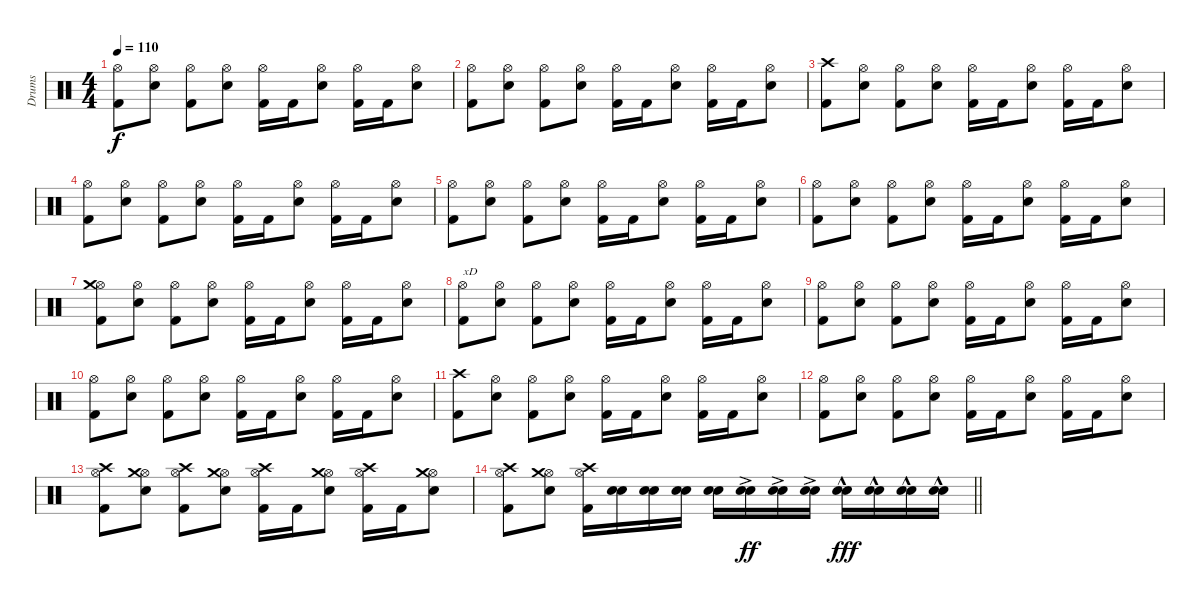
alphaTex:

\track ("Drums" "Drums") {instrument percussion}
\staff {score}
\articulation defaults
\ts (4 4)
\tempo 110
\clef neutral
\ks c
("Hi-Hat (open)" "Kick (hit) 2").8{dy f} ("Hi-Hat (open)" "Electric Snare (hit)").8 ("Hi-Hat (open)" "Kick (hit) 2").8 ("Hi-Hat (open)" "Electric Snare (hit)").8 ("Hi-Hat (open)" "Kick (hit) 2").16 "Kick (hit) 2".16 ("Hi-Hat (open)" "Electric Snare (hit)").8 ("Hi-Hat (open)" "Kick (hit) 2").16 "Kick (hit) 2".16 ("Hi-Hat (open)" "Electric Snare (hit)").8 |
("Hi-Hat (open)" "Kick (hit) 2").8 ("Hi-Hat (open)" "Electric Snare (hit)").8 ("Hi-Hat (open)" "Kick (hit) 2").8 ("Hi-Hat (open)" "Electric Snare (hit)").8 ("Hi-Hat (open)" "Kick (hit) 2").16 "Kick (hit) 2".16 ("Hi-Hat (open)" "Electric Snare (hit)").8 ("Hi-Hat (open)" "Kick (hit) 2").16 "Kick (hit) 2".16 ("Hi-Hat (open)" "Electric Snare (hit)").8 |
("Crash high (hit)" "Kick (hit) 2").8 ("Hi-Hat (open)" "Electric Snare (hit)").8 ("Hi-Hat (open)" "Kick (hit) 2").8 ("Hi-Hat (open)" "Electric Snare (hit)").8 ("Hi-Hat (open)" "Kick (hit) 2").16 "Kick (hit) 2".16 ("Hi-Hat (open)" "Electric Snare (hit)").8 ("Hi-Hat (open)" "Kick (hit) 2").16 "Kick (hit) 2".16 ("Hi-Hat (open)" "Electric Snare (hit)").8 |
("Hi-Hat (open)" "Kick (hit) 2").8 ("Hi-Hat (open)" "Electric Snare (hit)").8 ("Hi-Hat (open)" "Kick (hit) 2").8 ("Hi-Hat (open)" "Electric Snare (hit)").8 ("Hi-Hat (open)" "Kick (hit) 2").16 "Kick (hit) 2".16 ("Hi-Hat (open)" "Electric Snare (hit)").8 ("Hi-Hat (open)" "Kick (hit) 2").16 "Kick (hit) 2".16 ("Hi-Hat (open)" "Electric Snare (hit)").8 |
("Hi-Hat (open)" "Kick (hit) 2").8 ("Hi-Hat (open)" "Electric Snare (hit)").8 ("Hi-Hat (open)" "Kick (hit) 2").8 ("Hi-Hat (open)" "Electric Snare (hit)").8 ("Hi-Hat (open)" "Kick (hit) 2").16 "Kick (hit) 2".16 ("Hi-Hat (open)" "Electric Snare (hit)").8 ("Hi-Hat (open)" "Kick (hit) 2").16 "Kick (hit) 2".16 ("Hi-Hat (open)" "Electric Snare (hit)").8 |
("Hi-Hat (open)" "Kick (hit) 2").8 ("Hi-Hat (open)" "Electric Snare (hit)").8 ("Hi-Hat (open)" "Kick (hit) 2").8 ("Hi-Hat (open)" "Electric Snare (hit)").8 ("Hi-Hat (open)" "Kick (hit) 2").16 "Kick (hit) 2".16 ("Hi-Hat (open)" "Electric Snare (hit)").8 ("Hi-Hat (open)" "Kick (hit) 2").16 "Kick (hit) 2".16 ("Hi-Hat (open)" "Electric Snare (hit)").8 |
("Hi-Hat (open)" "Kick (hit) 2" "Crash medium (hit)").8{volume 16} ("Hi-Hat (open)" "Electric Snare (hit)").8 ("Hi-Hat (open)" "Kick (hit) 2").8 ("Hi-Hat (open)" "Electric Snare (hit)").8 ("Hi-Hat (open)" "Kick (hit) 2").16 "Kick (hit) 2".16 ("Hi-Hat (open)" "Electric Snare (hit)").8 ("Hi-Hat (open)" "Kick (hit) 2").16 "Kick (hit) 2".16 ("Hi-Hat (open)" "Electric Snare (hit)").8 |
("Hi-Hat (open)" "Kick (hit) 2").8{txt "xD"} ("Hi-Hat (open)" "Electric Snare (hit)").8 ("Hi-Hat (open)" "Kick (hit) 2").8 ("Hi-Hat (open)" "Electric Snare (hit)").8 ("Hi-Hat (open)" "Kick (hit) 2").16 "Kick (hit) 2".16 ("Hi-Hat (open)" "Electric Snare (hit)").8 ("Hi-Hat (open)" "Kick (hit) 2").16 "Kick (hit) 2".16 ("Hi-Hat (open)" "Electric Snare (hit)").8 |
("Hi-Hat (open)" "Kick (hit) 2").8 ("Hi-Hat (open)" "Electric Snare (hit)").8 ("Hi-Hat (open)" "Kick (hit) 2").8 ("Hi-Hat (open)" "Electric Snare (hit)").8 ("Hi-Hat (open)" "Kick (hit) 2").16 "Kick (hit) 2".16 ("Hi-Hat (open)" "Electric Snare (hit)").8 ("Hi-Hat (open)" "Kick (hit) 2").16 "Kick (hit) 2".16 ("Hi-Hat (open)" "Electric Snare (hit)").8 |
("Hi-Hat (open)" "Kick (hit) 2").8 ("Hi-Hat (open)" "Electric Snare (hit)").8 ("Hi-Hat (open)" "Kick (hit) 2").8 ("Hi-Hat (open)" "Electric Snare (hit)").8 ("Hi-Hat (open)" "Kick (hit) 2").16 "Kick (hit) 2".16 ("Hi-Hat (open)" "Electric Snare (hit)").8 ("Hi-Hat (open)" "Kick (hit) 2").16 "Kick (hit) 2".16 ("Hi-Hat (open)" "Electric Snare (hit)").8 |
("Crash high (hit)" "Kick (hit) 2").8 ("Hi-Hat (open)" "Electric Snare (hit)").8 ("Hi-Hat (open)" "Kick (hit) 2").8 ("Hi-Hat (open)" "Electric Snare (hit)").8 ("Hi-Hat (open)" "Kick (hit) 2").16 "Kick (hit) 2".16 ("Hi-Hat (open)" "Electric Snare (hit)").8 ("Hi-Hat (open)" "Kick (hit) 2").16 "Kick (hit) 2".16 ("Hi-Hat (open)" "Electric Snare (hit)").8 |
("Hi-Hat (open)" "Kick (hit) 2").8 ("Hi-Hat (open)" "Electric Snare (hit)").8 ("Hi-Hat (open)" "Kick (hit) 2").8 ("Hi-Hat (open)" "Electric Snare (hit)").8 ("Hi-Hat (open)" "Kick (hit) 2").16 "Kick (hit) 2".16 ("Hi-Hat (open)" "Electric Snare (hit)").8 ("Hi-Hat (open)" "Kick (hit) 2").16 "Kick (hit) 2".16 ("Hi-Hat (open)" "Electric Snare (hit)").8 |
("Hi-Hat (open)" "Kick (hit) 2" "Crash high (hit)").8 ("Hi-Hat (open)" "Electric Snare (hit)" "Crash medium (hit)").8 ("Hi-Hat (open)" "Kick (hit) 2" "Crash high (hit)").8 ("Hi-Hat (open)" "Electric Snare (hit)" "Crash medium (hit)").8 ("Hi-Hat (open)" "Kick (hit) 2" "Crash high (hit)").16 "Kick (hit) 2".16 ("Hi-Hat (open)" "Electric Snare (hit)" "Crash medium (hit)").8 ("Hi-Hat (open)" "Kick (hit) 2" "Crash high (hit)").16 "Kick (hit) 2".16 ("Hi-Hat (open)" "Electric Snare (hit)" "Crash medium (hit)").8 |
\barLineRight lightlight
("Hi-Hat (open)" "Kick (hit) 2" "Crash high (hit)").8 ("Hi-Hat (open)" "Electric Snare (hit)" "Crash medium (hit)").8 ("Hi-Hat (open)" "Kick (hit) 2" "Crash high (hit)").16 ("Snare (hit) 2" "Snare (hit) 2").16 ("Snare (hit) 2" "Snare (hit) 2").16 ("Snare (hit) 2" "Snare (hit) 2").16 ("Snare (hit) 2" "Snare (hit) 2").16 ("Snare (hit) 2"{ac} "Snare (hit) 2"{ac}).16{dy ff} ("Snare (hit) 2"{ac} "Snare (hit) 2"{ac}).16 ("Snare (hit) 2"{ac} "Snare (hit) 2"{ac}).16 ("Snare (hit) 2"{hac} "Snare (hit) 2"{hac}).16{dy fff} ("Snare (hit) 2"{hac} "Snare (hit) 2"{hac}).16 ("Snare (hit) 2"{hac} "Snare (hit) 2"{hac}).16 ("Snare (hit) 2"{hac} "Snare (hit) 2"{hac}).16
